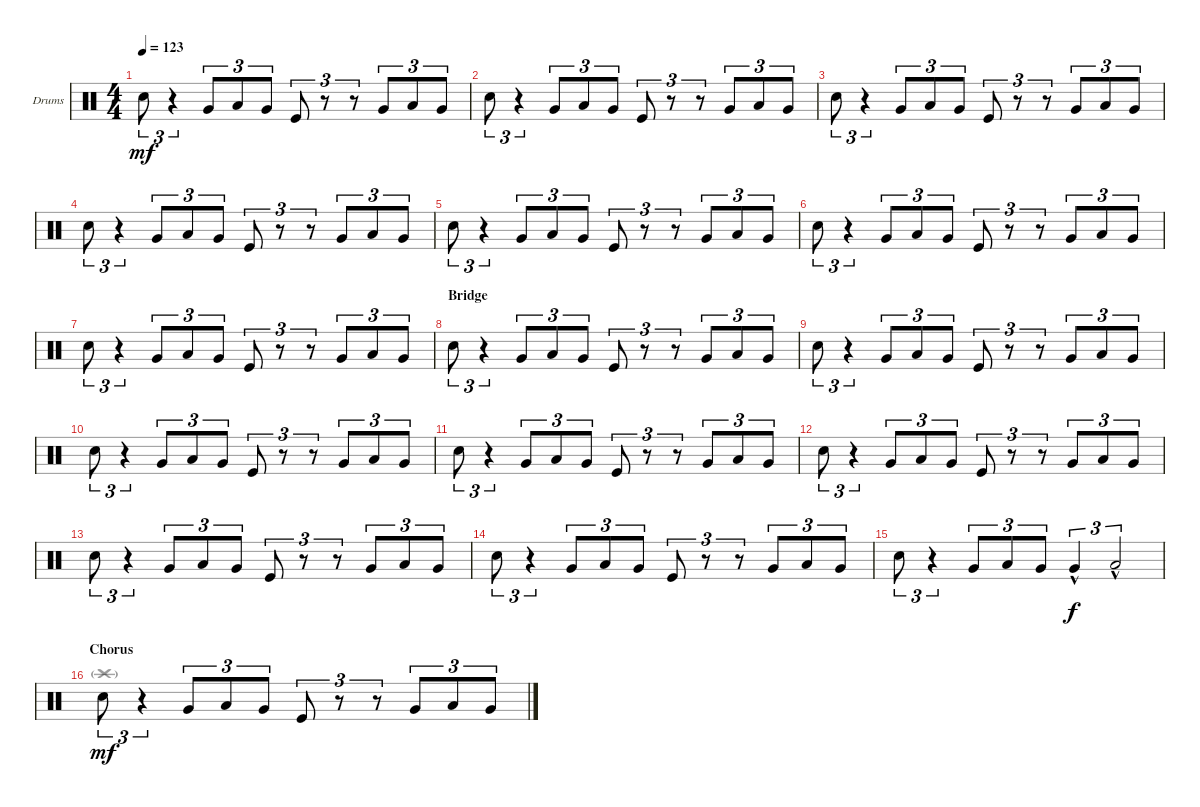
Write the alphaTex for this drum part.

\defaultSystemsLayout 4
\bracketExtendMode groupsimilarinstruments
\firstSystemTrackNameOrientation horizontal
\otherSystemsTrackNameOrientation horizontal
\track ("Drumkit" "Drums") {multiBarRest instrument percussion}
\staff {score}
\articulation defaults
\voice
\ts (4 4)
\tempo 123
\clef neutral
\ks c "Snare (hit) 2".8{tu (3 2) dy mf}
r.4{tu (3 2)} "Very Low Tom (hit)".8{tu (3 2)} "Low Tom (hit)".8{tu (3 2)} "Very Low Tom (hit)".8{tu (3 2)} "Kick (hit)".8{tu (3 2)} r.8{tu (3 2)} r.8{tu (3 2)} "Very Low Tom (hit)".8{tu (3 2)} "Low Tom (hit)".8{tu (3 2)} "Very Low Tom (hit)".8{tu (3 2)} |
"Snare (hit) 2".8{tu (3 2)} r.4{tu (3 2)} "Very Low Tom (hit)".8{tu (3 2)} "Low Tom (hit)".8{tu (3 2)} "Very Low Tom (hit)".8{tu (3 2)} "Kick (hit)".8{tu (3 2)} r.8{tu (3 2)} r.8{tu (3 2)} "Very Low Tom (hit)".8{tu (3 2)} "Low Tom (hit)".8{tu (3 2)} "Very Low Tom (hit)".8{tu (3 2)} |
"Snare (hit) 2".8{tu (3 2)} r.4{tu (3 2)} "Very Low Tom (hit)".8{tu (3 2)} "Low Tom (hit)".8{tu (3 2)} "Very Low Tom (hit)".8{tu (3 2)} "Kick (hit)".8{tu (3 2)} r.8{tu (3 2)} r.8{tu (3 2)} "Very Low Tom (hit)".8{tu (3 2)} "Low Tom (hit)".8{tu (3 2)} "Very Low Tom (hit)".8{tu (3 2)} |
"Snare (hit) 2".8{tu (3 2)} r.4{tu (3 2)} "Very Low Tom (hit)".8{tu (3 2)} "Low Tom (hit)".8{tu (3 2)} "Very Low Tom (hit)".8{tu (3 2)} "Kick (hit)".8{tu (3 2)} r.8{tu (3 2)} r.8{tu (3 2)} "Very Low Tom (hit)".8{tu (3 2)} "Low Tom (hit)".8{tu (3 2)} "Very Low Tom (hit)".8{tu (3 2)} |
"Snare (hit) 2".8{tu (3 2)} r.4{tu (3 2)} "Very Low Tom (hit)".8{tu (3 2)} "Low Tom (hit)".8{tu (3 2)} "Very Low Tom (hit)".8{tu (3 2)} "Kick (hit)".8{tu (3 2)} r.8{tu (3 2)} r.8{tu (3 2)} "Very Low Tom (hit)".8{tu (3 2)} "Low Tom (hit)".8{tu (3 2)} "Very Low Tom (hit)".8{tu (3 2)} |
"Snare (hit) 2".8{tu (3 2)} r.4{tu (3 2)} "Very Low Tom (hit)".8{tu (3 2)} "Low Tom (hit)".8{tu (3 2)} "Very Low Tom (hit)".8{tu (3 2)} "Kick (hit)".8{tu (3 2)} r.8{tu (3 2)} r.8{tu (3 2)} "Very Low Tom (hit)".8{tu (3 2)} "Low Tom (hit)".8{tu (3 2)} "Very Low Tom (hit)".8{tu (3 2)} |
"Snare (hit) 2".8{tu (3 2)} r.4{tu (3 2)} "Very Low Tom (hit)".8{tu (3 2)} "Low Tom (hit)".8{tu (3 2)} "Very Low Tom (hit)".8{tu (3 2)} "Kick (hit)".8{tu (3 2)} r.8{tu (3 2)} r.8{tu (3 2)} "Very Low Tom (hit)".8{tu (3 2)} "Low Tom (hit)".8{tu (3 2)} "Very Low Tom (hit)".8{tu (3 2)} |
\section ("" "Bridge")
"Snare (hit) 2".8{tu (3 2)} r.4{tu (3 2)} "Very Low Tom (hit)".8{tu (3 2)} "Low Tom (hit)".8{tu (3 2)} "Very Low Tom (hit)".8{tu (3 2)} "Kick (hit)".8{tu (3 2)} r.8{tu (3 2)} r.8{tu (3 2)} "Very Low Tom (hit)".8{tu (3 2)} "Low Tom (hit)".8{tu (3 2)} "Very Low Tom (hit)".8{tu (3 2)} |
"Snare (hit) 2".8{tu (3 2)} r.4{tu (3 2)} "Very Low Tom (hit)".8{tu (3 2)} "Low Tom (hit)".8{tu (3 2)} "Very Low Tom (hit)".8{tu (3 2)} "Kick (hit)".8{tu (3 2)} r.8{tu (3 2)} r.8{tu (3 2)} "Very Low Tom (hit)".8{tu (3 2)} "Low Tom (hit)".8{tu (3 2)} "Very Low Tom (hit)".8{tu (3 2)} |
"Snare (hit) 2".8{tu (3 2)} r.4{tu (3 2)} "Very Low Tom (hit)".8{tu (3 2)} "Low Tom (hit)".8{tu (3 2)} "Very Low Tom (hit)".8{tu (3 2)} "Kick (hit)".8{tu (3 2)} r.8{tu (3 2)} r.8{tu (3 2)} "Very Low Tom (hit)".8{tu (3 2)} "Low Tom (hit)".8{tu (3 2)} "Very Low Tom (hit)".8{tu (3 2)} |
"Snare (hit) 2".8{tu (3 2)} r.4{tu (3 2)} "Very Low Tom (hit)".8{tu (3 2)} "Low Tom (hit)".8{tu (3 2)} "Very Low Tom (hit)".8{tu (3 2)} "Kick (hit)".8{tu (3 2)} r.8{tu (3 2)} r.8{tu (3 2)} "Very Low Tom (hit)".8{tu (3 2)} "Low Tom (hit)".8{tu (3 2)} "Very Low Tom (hit)".8{tu (3 2)} |
"Snare (hit) 2".8{tu (3 2)} r.4{tu (3 2)} "Very Low Tom (hit)".8{tu (3 2)} "Low Tom (hit)".8{tu (3 2)} "Very Low Tom (hit)".8{tu (3 2)} "Kick (hit)".8{tu (3 2)} r.8{tu (3 2)} r.8{tu (3 2)} "Very Low Tom (hit)".8{tu (3 2)} "Low Tom (hit)".8{tu (3 2)} "Very Low Tom (hit)".8{tu (3 2)} |
"Snare (hit) 2".8{tu (3 2)} r.4{tu (3 2)} "Very Low Tom (hit)".8{tu (3 2)} "Low Tom (hit)".8{tu (3 2)} "Very Low Tom (hit)".8{tu (3 2)} "Kick (hit)".8{tu (3 2)} r.8{tu (3 2)} r.8{tu (3 2)} "Very Low Tom (hit)".8{tu (3 2)} "Low Tom (hit)".8{tu (3 2)} "Very Low Tom (hit)".8{tu (3 2)} |
"Snare (hit) 2".8{tu (3 2)} r.4{tu (3 2)} "Very Low Tom (hit)".8{tu (3 2)} "Low Tom (hit)".8{tu (3 2)} "Very Low Tom (hit)".8{tu (3 2)} "Kick (hit)".8{tu (3 2)} r.8{tu (3 2)} r.8{tu (3 2)} "Very Low Tom (hit)".8{tu (3 2)} "Low Tom (hit)".8{tu (3 2)} "Very Low Tom (hit)".8{tu (3 2)} |
"Snare (hit) 2".8{tu (3 2)} r.4{tu (3 2)} "Very Low Tom (hit)".8{tu (3 2)} "Low Tom (hit)".8{tu (3 2)} "Very Low Tom (hit)".8{tu (3 2)} "Very Low Tom (hit)"{hac}.4{tu (3 2) dy f} "Low Tom (hit)"{hac}.2{tu (3 2)} |
\section ("" "Chorus")
"Snare (hit) 2".8{tu (3 2) dy mf beam invert} r.4{tu (3 2)} "Very Low Tom (hit)".8{tu (3 2)} "Low Tom (hit)".8{tu (3 2)} "Very Low Tom (hit)".8{tu (3 2)} "Kick (hit)".8{tu (3 2)} r.8{tu (3 2)} r.8{tu (3 2)} "Very Low Tom (hit)".8{tu (3 2)} "Low Tom (hit)".8{tu (3 2)} "Very Low Tom (hit)".8{tu (3 2)}
\voice
\clef neutral
\ottava regular
\simile none
\ks c
|
|
|
|
|
|
|
|
|
|
|
|
|
|
|
"Crash high (hit)"{g}.1
